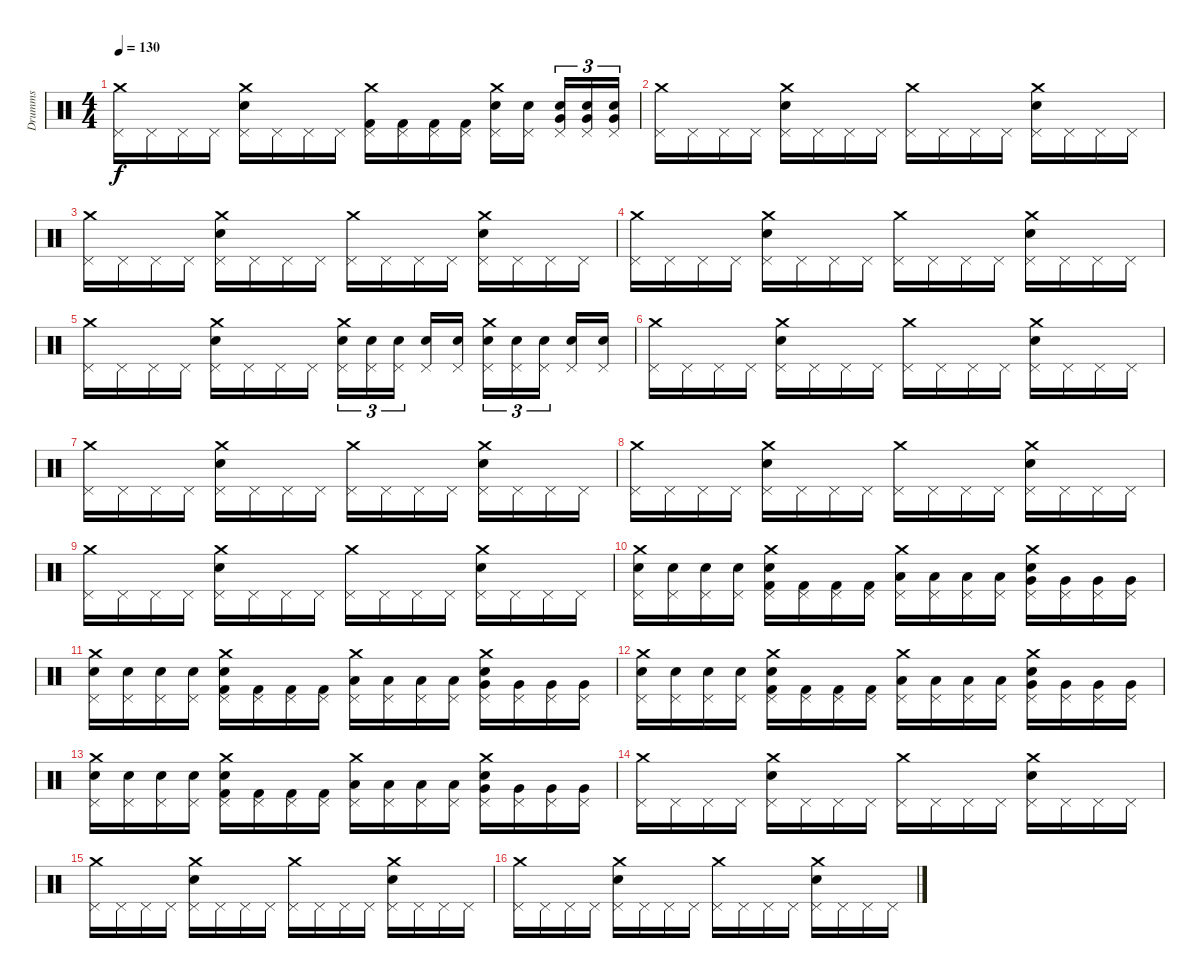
\track ("Drumms" "Drumms") {instrument percussion}
\staff {score}
\articulation defaults
\ts (4 4)
\tempo 130
\clef neutral
\ks c
("Crash medium (hit)" "Pedal Hi-Hat (hit)").16{dy f} "Pedal Hi-Hat (hit)".16 "Pedal Hi-Hat (hit)".16 "Pedal Hi-Hat (hit)".16 ("Crash medium (hit)" "Electric Snare (hit)" "Pedal Hi-Hat (hit)").16 "Pedal Hi-Hat (hit)".16 "Pedal Hi-Hat (hit)".16 "Pedal Hi-Hat (hit)".16 ("Crash medium (hit)" "Kick (hit) 2" "Pedal Hi-Hat (hit)").16 ("Kick (hit) 2" "Pedal Hi-Hat (hit)").16 ("Kick (hit) 2" "Pedal Hi-Hat (hit)").16 ("Kick (hit) 2" "Pedal Hi-Hat (hit)").16 ("Crash medium (hit)" "Electric Snare (hit)" "Pedal Hi-Hat (hit)").16 ("Electric Snare (hit)" "Pedal Hi-Hat (hit)").16 ("Very Low Tom (hit)" "Electric Snare (hit)" "Pedal Hi-Hat (hit)").16{tu (3 2)} ("Very Low Tom (hit)" "Electric Snare (hit)" "Pedal Hi-Hat (hit)").16{tu (3 2)} ("Very Low Tom (hit)" "Electric Snare (hit)" "Pedal Hi-Hat (hit)").16{tu (3 2)} |
("Crash medium (hit)" "Pedal Hi-Hat (hit)").16 "Pedal Hi-Hat (hit)".16 "Pedal Hi-Hat (hit)".16 "Pedal Hi-Hat (hit)".16 ("Crash medium (hit)" "Electric Snare (hit)" "Pedal Hi-Hat (hit)").16 "Pedal Hi-Hat (hit)".16 "Pedal Hi-Hat (hit)".16 "Pedal Hi-Hat (hit)".16 ("Crash medium (hit)" "Pedal Hi-Hat (hit)").16 "Pedal Hi-Hat (hit)".16 "Pedal Hi-Hat (hit)".16 "Pedal Hi-Hat (hit)".16 ("Crash medium (hit)" "Electric Snare (hit)" "Pedal Hi-Hat (hit)").16 "Pedal Hi-Hat (hit)".16 "Pedal Hi-Hat (hit)".16 "Pedal Hi-Hat (hit)".16 |
("Crash medium (hit)" "Pedal Hi-Hat (hit)").16 "Pedal Hi-Hat (hit)".16 "Pedal Hi-Hat (hit)".16 "Pedal Hi-Hat (hit)".16 ("Crash medium (hit)" "Electric Snare (hit)" "Pedal Hi-Hat (hit)").16 "Pedal Hi-Hat (hit)".16 "Pedal Hi-Hat (hit)".16 "Pedal Hi-Hat (hit)".16 ("Crash medium (hit)" "Pedal Hi-Hat (hit)").16 "Pedal Hi-Hat (hit)".16 "Pedal Hi-Hat (hit)".16 "Pedal Hi-Hat (hit)".16 ("Crash medium (hit)" "Electric Snare (hit)" "Pedal Hi-Hat (hit)").16 "Pedal Hi-Hat (hit)".16 "Pedal Hi-Hat (hit)".16 "Pedal Hi-Hat (hit)".16 |
("Crash medium (hit)" "Pedal Hi-Hat (hit)").16 "Pedal Hi-Hat (hit)".16 "Pedal Hi-Hat (hit)".16 "Pedal Hi-Hat (hit)".16 ("Crash medium (hit)" "Electric Snare (hit)" "Pedal Hi-Hat (hit)").16 "Pedal Hi-Hat (hit)".16 "Pedal Hi-Hat (hit)".16 "Pedal Hi-Hat (hit)".16 ("Crash medium (hit)" "Pedal Hi-Hat (hit)").16 "Pedal Hi-Hat (hit)".16 "Pedal Hi-Hat (hit)".16 "Pedal Hi-Hat (hit)".16 ("Crash medium (hit)" "Electric Snare (hit)" "Pedal Hi-Hat (hit)").16 "Pedal Hi-Hat (hit)".16 "Pedal Hi-Hat (hit)".16 "Pedal Hi-Hat (hit)".16 |
("Crash medium (hit)" "Pedal Hi-Hat (hit)").16 "Pedal Hi-Hat (hit)".16 "Pedal Hi-Hat (hit)".16 "Pedal Hi-Hat (hit)".16 ("Crash medium (hit)" "Electric Snare (hit)" "Pedal Hi-Hat (hit)").16 "Pedal Hi-Hat (hit)".16 "Pedal Hi-Hat (hit)".16 "Pedal Hi-Hat (hit)".16 ("Crash medium (hit)" "Snare (hit) 2" "Pedal Hi-Hat (hit)").16{tu (3 2)} ("Snare (hit) 2" "Pedal Hi-Hat (hit)").16{tu (3 2)} ("Snare (hit) 2" "Pedal Hi-Hat (hit)").16{tu (3 2)} ("Snare (hit) 2" "Pedal Hi-Hat (hit)").16 ("Snare (hit) 2" "Pedal Hi-Hat (hit)").16 ("Crash medium (hit)" "Electric Snare (hit)" "Pedal Hi-Hat (hit)").16{tu (3 2)} ("Electric Snare (hit)" "Pedal Hi-Hat (hit)").16{tu (3 2)} ("Electric Snare (hit)" "Pedal Hi-Hat (hit)").16{tu (3 2)} ("Electric Snare (hit)" "Pedal Hi-Hat (hit)").16 ("Electric Snare (hit)" "Pedal Hi-Hat (hit)").16 |
("Crash medium (hit)" "Pedal Hi-Hat (hit)").16 "Pedal Hi-Hat (hit)".16 "Pedal Hi-Hat (hit)".16 "Pedal Hi-Hat (hit)".16 ("Crash medium (hit)" "Electric Snare (hit)" "Pedal Hi-Hat (hit)").16 "Pedal Hi-Hat (hit)".16 "Pedal Hi-Hat (hit)".16 "Pedal Hi-Hat (hit)".16 ("Crash medium (hit)" "Pedal Hi-Hat (hit)").16 "Pedal Hi-Hat (hit)".16 "Pedal Hi-Hat (hit)".16 "Pedal Hi-Hat (hit)".16 ("Crash medium (hit)" "Electric Snare (hit)" "Pedal Hi-Hat (hit)").16 "Pedal Hi-Hat (hit)".16 "Pedal Hi-Hat (hit)".16 "Pedal Hi-Hat (hit)".16 |
("Crash medium (hit)" "Pedal Hi-Hat (hit)").16 "Pedal Hi-Hat (hit)".16 "Pedal Hi-Hat (hit)".16 "Pedal Hi-Hat (hit)".16 ("Crash medium (hit)" "Electric Snare (hit)" "Pedal Hi-Hat (hit)").16 "Pedal Hi-Hat (hit)".16 "Pedal Hi-Hat (hit)".16 "Pedal Hi-Hat (hit)".16 ("Crash medium (hit)" "Pedal Hi-Hat (hit)").16 "Pedal Hi-Hat (hit)".16 "Pedal Hi-Hat (hit)".16 "Pedal Hi-Hat (hit)".16 ("Crash medium (hit)" "Electric Snare (hit)" "Pedal Hi-Hat (hit)").16 "Pedal Hi-Hat (hit)".16 "Pedal Hi-Hat (hit)".16 "Pedal Hi-Hat (hit)".16 |
("Crash medium (hit)" "Pedal Hi-Hat (hit)").16 "Pedal Hi-Hat (hit)".16 "Pedal Hi-Hat (hit)".16 "Pedal Hi-Hat (hit)".16 ("Crash medium (hit)" "Electric Snare (hit)" "Pedal Hi-Hat (hit)").16 "Pedal Hi-Hat (hit)".16 "Pedal Hi-Hat (hit)".16 "Pedal Hi-Hat (hit)".16 ("Crash medium (hit)" "Pedal Hi-Hat (hit)").16 "Pedal Hi-Hat (hit)".16 "Pedal Hi-Hat (hit)".16 "Pedal Hi-Hat (hit)".16 ("Crash medium (hit)" "Electric Snare (hit)" "Pedal Hi-Hat (hit)").16 "Pedal Hi-Hat (hit)".16 "Pedal Hi-Hat (hit)".16 "Pedal Hi-Hat (hit)".16 |
("Crash medium (hit)" "Pedal Hi-Hat (hit)").16 "Pedal Hi-Hat (hit)".16 "Pedal Hi-Hat (hit)".16 "Pedal Hi-Hat (hit)".16 ("Crash medium (hit)" "Electric Snare (hit)" "Pedal Hi-Hat (hit)").16 "Pedal Hi-Hat (hit)".16 "Pedal Hi-Hat (hit)".16 "Pedal Hi-Hat (hit)".16 ("Crash medium (hit)" "Pedal Hi-Hat (hit)").16 "Pedal Hi-Hat (hit)".16 "Pedal Hi-Hat (hit)".16 "Pedal Hi-Hat (hit)".16 ("Crash medium (hit)" "Electric Snare (hit)" "Pedal Hi-Hat (hit)").16 "Pedal Hi-Hat (hit)".16 "Pedal Hi-Hat (hit)".16 "Pedal Hi-Hat (hit)".16 |
("Crash medium (hit)" "Snare (hit) 2" "Pedal Hi-Hat (hit)").16{balance 0} ("Snare (hit) 2" "Pedal Hi-Hat (hit)").16 ("Snare (hit) 2" "Pedal Hi-Hat (hit)").16{balance 2} ("Snare (hit) 2" "Pedal Hi-Hat (hit)").16 ("Crash medium (hit)" "Electric Snare (hit)" "Kick (hit) 2" "Pedal Hi-Hat (hit)").16{balance 4} ("Kick (hit) 2" "Pedal Hi-Hat (hit)").16 ("Kick (hit) 2" "Pedal Hi-Hat (hit)").16{balance 6} ("Kick (hit) 2" "Pedal Hi-Hat (hit)").16 ("Crash medium (hit)" "Low Floor Tom (hit)" "Pedal Hi-Hat (hit)").16{balance 8} ("Low Floor Tom (hit)" "Pedal Hi-Hat (hit)").16 ("Low Floor Tom (hit)" "Pedal Hi-Hat (hit)").16{balance 10} ("Low Floor Tom (hit)" "Pedal Hi-Hat (hit)").16 ("Crash medium (hit)" "Electric Snare (hit)" "Very Low Tom (hit)" "Pedal Hi-Hat (hit)").16{balance 12} ("Very Low Tom (hit)" "Pedal Hi-Hat (hit)").16 ("Very Low Tom (hit)" "Pedal Hi-Hat (hit)").16{balance 14} ("Very Low Tom (hit)" "Pedal Hi-Hat (hit)").16 |
("Crash medium (hit)" "Snare (hit) 2" "Pedal Hi-Hat (hit)").16{balance 0} ("Snare (hit) 2" "Pedal Hi-Hat (hit)").16 ("Snare (hit) 2" "Pedal Hi-Hat (hit)").16{balance 2} ("Snare (hit) 2" "Pedal Hi-Hat (hit)").16 ("Crash medium (hit)" "Electric Snare (hit)" "Kick (hit) 2" "Pedal Hi-Hat (hit)").16{balance 4} ("Kick (hit) 2" "Pedal Hi-Hat (hit)").16 ("Kick (hit) 2" "Pedal Hi-Hat (hit)").16{balance 6} ("Kick (hit) 2" "Pedal Hi-Hat (hit)").16 ("Crash medium (hit)" "Low Floor Tom (hit)" "Pedal Hi-Hat (hit)").16{balance 8} ("Low Floor Tom (hit)" "Pedal Hi-Hat (hit)").16 ("Low Floor Tom (hit)" "Pedal Hi-Hat (hit)").16{balance 10} ("Low Floor Tom (hit)" "Pedal Hi-Hat (hit)").16 ("Crash medium (hit)" "Electric Snare (hit)" "Very Low Tom (hit)" "Pedal Hi-Hat (hit)").16{balance 12} ("Very Low Tom (hit)" "Pedal Hi-Hat (hit)").16 ("Very Low Tom (hit)" "Pedal Hi-Hat (hit)").16{balance 14} ("Very Low Tom (hit)" "Pedal Hi-Hat (hit)").16 |
("Crash medium (hit)" "Snare (hit) 2" "Pedal Hi-Hat (hit)").16{balance 0} ("Snare (hit) 2" "Pedal Hi-Hat (hit)").16 ("Snare (hit) 2" "Pedal Hi-Hat (hit)").16{balance 2} ("Snare (hit) 2" "Pedal Hi-Hat (hit)").16 ("Crash medium (hit)" "Electric Snare (hit)" "Kick (hit) 2" "Pedal Hi-Hat (hit)").16{balance 4} ("Kick (hit) 2" "Pedal Hi-Hat (hit)").16 ("Kick (hit) 2" "Pedal Hi-Hat (hit)").16{balance 6} ("Kick (hit) 2" "Pedal Hi-Hat (hit)").16 ("Crash medium (hit)" "Low Floor Tom (hit)" "Pedal Hi-Hat (hit)").16{balance 8} ("Low Floor Tom (hit)" "Pedal Hi-Hat (hit)").16 ("Low Floor Tom (hit)" "Pedal Hi-Hat (hit)").16{balance 10} ("Low Floor Tom (hit)" "Pedal Hi-Hat (hit)").16 ("Crash medium (hit)" "Electric Snare (hit)" "Very Low Tom (hit)" "Pedal Hi-Hat (hit)").16{balance 12} ("Very Low Tom (hit)" "Pedal Hi-Hat (hit)").16 ("Very Low Tom (hit)" "Pedal Hi-Hat (hit)").16{balance 14} ("Very Low Tom (hit)" "Pedal Hi-Hat (hit)").16 |
("Crash medium (hit)" "Snare (hit) 2" "Pedal Hi-Hat (hit)").16{balance 0} ("Snare (hit) 2" "Pedal Hi-Hat (hit)").16 ("Snare (hit) 2" "Pedal Hi-Hat (hit)").16{balance 2} ("Snare (hit) 2" "Pedal Hi-Hat (hit)").16 ("Crash medium (hit)" "Electric Snare (hit)" "Kick (hit) 2" "Pedal Hi-Hat (hit)").16{balance 4} ("Kick (hit) 2" "Pedal Hi-Hat (hit)").16 ("Kick (hit) 2" "Pedal Hi-Hat (hit)").16{balance 6} ("Kick (hit) 2" "Pedal Hi-Hat (hit)").16 ("Crash medium (hit)" "Low Floor Tom (hit)" "Pedal Hi-Hat (hit)").16{balance 8} ("Low Floor Tom (hit)" "Pedal Hi-Hat (hit)").16 ("Low Floor Tom (hit)" "Pedal Hi-Hat (hit)").16{balance 10} ("Low Floor Tom (hit)" "Pedal Hi-Hat (hit)").16 ("Crash medium (hit)" "Electric Snare (hit)" "Very Low Tom (hit)" "Pedal Hi-Hat (hit)").16{balance 12} ("Very Low Tom (hit)" "Pedal Hi-Hat (hit)").16 ("Very Low Tom (hit)" "Pedal Hi-Hat (hit)").16{balance 14} ("Very Low Tom (hit)" "Pedal Hi-Hat (hit)").16 |
("Crash medium (hit)" "Pedal Hi-Hat (hit)").16{volume 10 balance 8} "Pedal Hi-Hat (hit)".16 "Pedal Hi-Hat (hit)".16 "Pedal Hi-Hat (hit)".16 ("Crash medium (hit)" "Electric Snare (hit)" "Pedal Hi-Hat (hit)").16 "Pedal Hi-Hat (hit)".16 "Pedal Hi-Hat (hit)".16 "Pedal Hi-Hat (hit)".16 ("Crash medium (hit)" "Pedal Hi-Hat (hit)").16 "Pedal Hi-Hat (hit)".16 "Pedal Hi-Hat (hit)".16 "Pedal Hi-Hat (hit)".16 ("Crash medium (hit)" "Electric Snare (hit)" "Pedal Hi-Hat (hit)").16 "Pedal Hi-Hat (hit)".16 "Pedal Hi-Hat (hit)".16 "Pedal Hi-Hat (hit)".16 |
("Crash medium (hit)" "Pedal Hi-Hat (hit)").16 "Pedal Hi-Hat (hit)".16 "Pedal Hi-Hat (hit)".16 "Pedal Hi-Hat (hit)".16 ("Crash medium (hit)" "Electric Snare (hit)" "Pedal Hi-Hat (hit)").16 "Pedal Hi-Hat (hit)".16 "Pedal Hi-Hat (hit)".16 "Pedal Hi-Hat (hit)".16 ("Crash medium (hit)" "Pedal Hi-Hat (hit)").16 "Pedal Hi-Hat (hit)".16 "Pedal Hi-Hat (hit)".16 "Pedal Hi-Hat (hit)".16 ("Crash medium (hit)" "Electric Snare (hit)" "Pedal Hi-Hat (hit)").16 "Pedal Hi-Hat (hit)".16 "Pedal Hi-Hat (hit)".16 "Pedal Hi-Hat (hit)".16 |
("Crash medium (hit)" "Pedal Hi-Hat (hit)").16 "Pedal Hi-Hat (hit)".16 "Pedal Hi-Hat (hit)".16 "Pedal Hi-Hat (hit)".16 ("Crash medium (hit)" "Electric Snare (hit)" "Pedal Hi-Hat (hit)").16 "Pedal Hi-Hat (hit)".16 "Pedal Hi-Hat (hit)".16 "Pedal Hi-Hat (hit)".16 ("Crash medium (hit)" "Pedal Hi-Hat (hit)").16 "Pedal Hi-Hat (hit)".16 "Pedal Hi-Hat (hit)".16 "Pedal Hi-Hat (hit)".16 ("Crash medium (hit)" "Electric Snare (hit)" "Pedal Hi-Hat (hit)").16 "Pedal Hi-Hat (hit)".16 "Pedal Hi-Hat (hit)".16 "Pedal Hi-Hat (hit)".16
